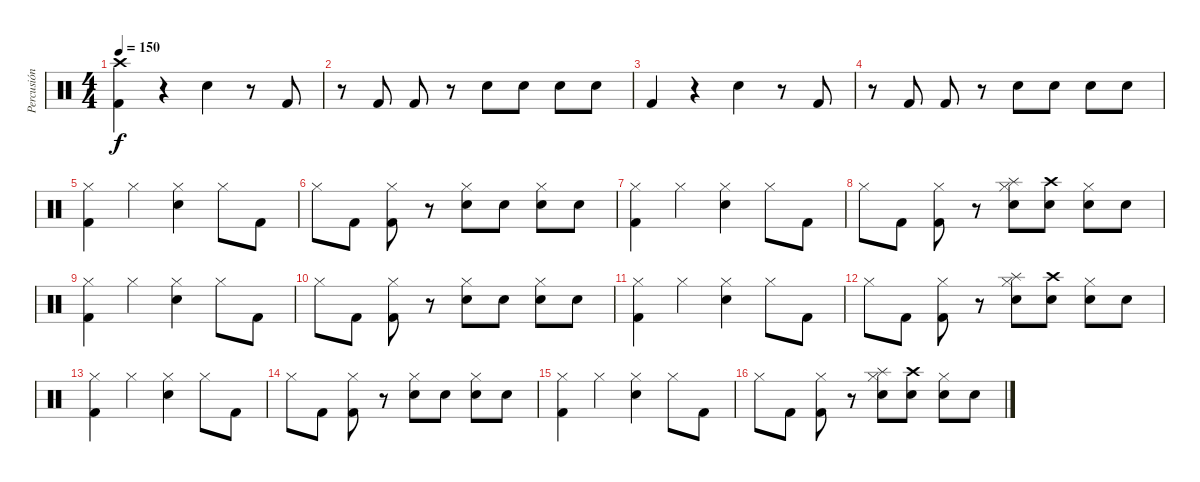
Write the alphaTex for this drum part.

\track ("Percusión" "Percusión") {instrument percussion}
\staff {score}
\articulation defaults
\ts (4 4)
\tempo 150
\clef neutral
\ks c
("Crash high (hit)" "Kick (hit) 2").4{dy f} r.4 "Snare (hit) 2".4 r.8 "Kick (hit) 2".8 |
r.8 "Kick (hit) 2".8 "Kick (hit) 2".8 r.8 "Snare (hit) 2".8 "Snare (hit) 2".8 "Snare (hit) 2".8 "Snare (hit) 2".8 |
"Kick (hit) 2".4 r.4 "Snare (hit) 2".4 r.8 "Kick (hit) 2".8 |
r.8 "Kick (hit) 2".8 "Kick (hit) 2".8 r.8 "Snare (hit) 2".8 "Snare (hit) 2".8 "Snare (hit) 2".8 "Snare (hit) 2".8 |
("Hi-Hat (closed)" "Kick (hit) 2").4 "Hi-Hat (closed)".4 ("Hi-Hat (closed)" "Snare (hit) 2").4 "Hi-Hat (closed)".8 "Kick (hit) 2".8 |
"Hi-Hat (closed)".8 "Kick (hit) 2".8 ("Hi-Hat (closed)" "Kick (hit) 2").8 r.8 ("Hi-Hat (closed)" "Snare (hit) 2").8 "Snare (hit) 2".8 ("Hi-Hat (closed)" "Snare (hit) 2").8 "Snare (hit) 2".8 |
("Hi-Hat (closed)" "Kick (hit) 2").4 "Hi-Hat (closed)".4 ("Hi-Hat (closed)" "Snare (hit) 2").4 "Hi-Hat (closed)".8 "Kick (hit) 2".8 |
"Hi-Hat (closed)".8 "Kick (hit) 2".8 ("Hi-Hat (closed)" "Kick (hit) 2").8 r.8 ("Splash (hit)" "Hi-Hat (closed)" "Snare (hit) 2").8 ("Crash high (hit)" "Snare (hit) 2").8 ("Hi-Hat (closed)" "Snare (hit) 2").8 "Snare (hit) 2".8 |
("Hi-Hat (closed)" "Kick (hit) 2").4 "Hi-Hat (closed)".4 ("Hi-Hat (closed)" "Snare (hit) 2").4 "Hi-Hat (closed)".8 "Kick (hit) 2".8 |
"Hi-Hat (closed)".8 "Kick (hit) 2".8 ("Hi-Hat (closed)" "Kick (hit) 2").8 r.8 ("Hi-Hat (closed)" "Snare (hit) 2").8 "Snare (hit) 2".8 ("Hi-Hat (closed)" "Snare (hit) 2").8 "Snare (hit) 2".8 |
("Hi-Hat (closed)" "Kick (hit) 2").4 "Hi-Hat (closed)".4 ("Hi-Hat (closed)" "Snare (hit) 2").4 "Hi-Hat (closed)".8 "Kick (hit) 2".8 |
"Hi-Hat (closed)".8 "Kick (hit) 2".8 ("Hi-Hat (closed)" "Kick (hit) 2").8 r.8 ("Splash (hit)" "Hi-Hat (closed)" "Snare (hit) 2").8 ("Crash high (hit)" "Snare (hit) 2").8 ("Hi-Hat (closed)" "Snare (hit) 2").8 "Snare (hit) 2".8 |
("Hi-Hat (closed)" "Kick (hit) 2").4 "Hi-Hat (closed)".4 ("Hi-Hat (closed)" "Snare (hit) 2").4 "Hi-Hat (closed)".8 "Kick (hit) 2".8 |
"Hi-Hat (closed)".8 "Kick (hit) 2".8 ("Hi-Hat (closed)" "Kick (hit) 2").8 r.8 ("Hi-Hat (closed)" "Snare (hit) 2").8 "Snare (hit) 2".8 ("Hi-Hat (closed)" "Snare (hit) 2").8 "Snare (hit) 2".8 |
("Hi-Hat (closed)" "Kick (hit) 2").4 "Hi-Hat (closed)".4 ("Hi-Hat (closed)" "Snare (hit) 2").4 "Hi-Hat (closed)".8 "Kick (hit) 2".8 |
"Hi-Hat (closed)".8 "Kick (hit) 2".8 ("Hi-Hat (closed)" "Kick (hit) 2").8 r.8 ("Splash (hit)" "Hi-Hat (closed)" "Snare (hit) 2").8 ("Crash high (hit)" "Snare (hit) 2").8 ("Hi-Hat (closed)" "Snare (hit) 2").8 "Snare (hit) 2".8
